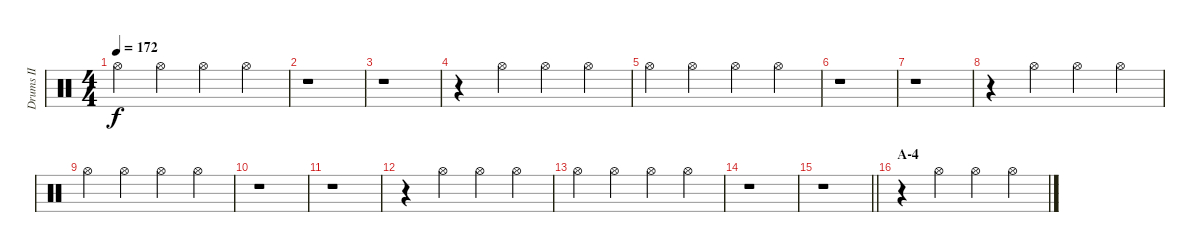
\track ("Drums II" "Drums II") {instrument percussion}
\staff {score}
\articulation defaults
\ts (4 4)
\tempo 172
\clef neutral
\ks c "Hi-Hat (open)".4{dy f} "Hi-Hat (open)".4 "Hi-Hat (open)".4 "Hi-Hat (open)".4
|
r.1 |
r.1 |
r.4 "Hi-Hat (open)".4 "Hi-Hat (open)".4 "Hi-Hat (open)".4 |
"Hi-Hat (open)".4 "Hi-Hat (open)".4 "Hi-Hat (open)".4 "Hi-Hat (open)".4 |
r.1 |
r.1 |
r.4 "Hi-Hat (open)".4 "Hi-Hat (open)".4 "Hi-Hat (open)".4 |
"Hi-Hat (open)".4 "Hi-Hat (open)".4 "Hi-Hat (open)".4 "Hi-Hat (open)".4 |
r.1 |
r.1 |
r.4 "Hi-Hat (open)".4 "Hi-Hat (open)".4 "Hi-Hat (open)".4 |
"Hi-Hat (open)".4 "Hi-Hat (open)".4 "Hi-Hat (open)".4 "Hi-Hat (open)".4 |
r.1 |
\barLineRight lightlight
r.1 |
\section ("" "A-4")
r.4 "Hi-Hat (open)".4 "Hi-Hat (open)".4 "Hi-Hat (open)".4
